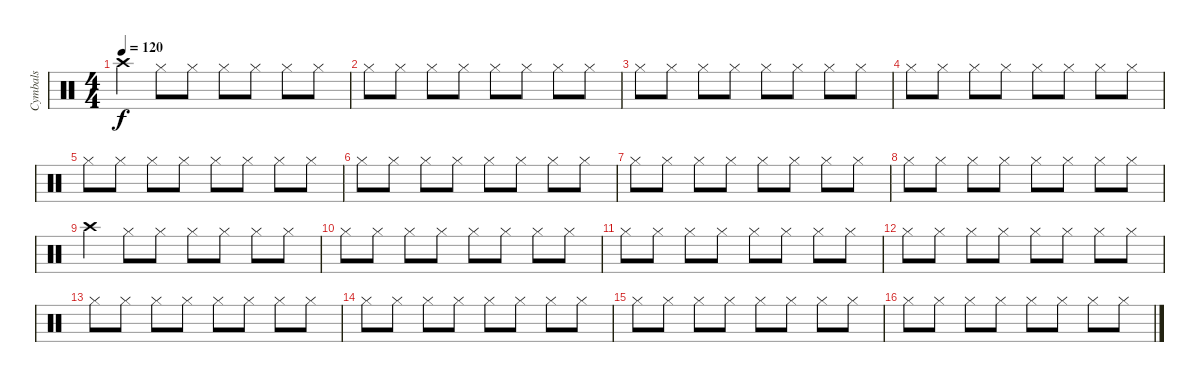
\track ("Cymbals" "Cymbals") {instrument percussion}
\staff {score}
\articulation defaults
\ts (4 4)
\tempo 120
\clef neutral
\ks c "Crash high (hit)".4{dy f} "Hi-Hat (closed)".8 "Hi-Hat (closed)".8 "Hi-Hat (closed)".8 "Hi-Hat (closed)".8 "Hi-Hat (closed)".8 "Hi-Hat (closed)".8
|
"Hi-Hat (closed)".8 "Hi-Hat (closed)".8 "Hi-Hat (closed)".8 "Hi-Hat (closed)".8 "Hi-Hat (closed)".8 "Hi-Hat (closed)".8 "Hi-Hat (closed)".8 "Hi-Hat (closed)".8 |
"Hi-Hat (closed)".8 "Hi-Hat (closed)".8 "Hi-Hat (closed)".8 "Hi-Hat (closed)".8 "Hi-Hat (closed)".8 "Hi-Hat (closed)".8 "Hi-Hat (closed)".8 "Hi-Hat (closed)".8 |
"Hi-Hat (closed)".8 "Hi-Hat (closed)".8 "Hi-Hat (closed)".8 "Hi-Hat (closed)".8 "Hi-Hat (closed)".8 "Hi-Hat (closed)".8 "Hi-Hat (closed)".8 "Hi-Hat (closed)".8 |
"Hi-Hat (closed)".8 "Hi-Hat (closed)".8 "Hi-Hat (closed)".8 "Hi-Hat (closed)".8 "Hi-Hat (closed)".8 "Hi-Hat (closed)".8 "Hi-Hat (closed)".8 "Hi-Hat (closed)".8 |
"Hi-Hat (closed)".8 "Hi-Hat (closed)".8 "Hi-Hat (closed)".8 "Hi-Hat (closed)".8 "Hi-Hat (closed)".8 "Hi-Hat (closed)".8 "Hi-Hat (closed)".8 "Hi-Hat (closed)".8 |
"Hi-Hat (closed)".8 "Hi-Hat (closed)".8 "Hi-Hat (closed)".8 "Hi-Hat (closed)".8 "Hi-Hat (closed)".8 "Hi-Hat (closed)".8 "Hi-Hat (closed)".8 "Hi-Hat (closed)".8 |
"Hi-Hat (closed)".8 "Hi-Hat (closed)".8 "Hi-Hat (closed)".8 "Hi-Hat (closed)".8 "Hi-Hat (closed)".8 "Hi-Hat (closed)".8 "Hi-Hat (closed)".8 "Hi-Hat (closed)".8 |
"Crash high (hit)".4 "Hi-Hat (closed)".8 "Hi-Hat (closed)".8 "Hi-Hat (closed)".8 "Hi-Hat (closed)".8 "Hi-Hat (closed)".8 "Hi-Hat (closed)".8 |
"Hi-Hat (closed)".8 "Hi-Hat (closed)".8 "Hi-Hat (closed)".8 "Hi-Hat (closed)".8 "Hi-Hat (closed)".8 "Hi-Hat (closed)".8 "Hi-Hat (closed)".8 "Hi-Hat (closed)".8 |
"Hi-Hat (closed)".8 "Hi-Hat (closed)".8 "Hi-Hat (closed)".8 "Hi-Hat (closed)".8 "Hi-Hat (closed)".8 "Hi-Hat (closed)".8 "Hi-Hat (closed)".8 "Hi-Hat (closed)".8 |
"Hi-Hat (closed)".8 "Hi-Hat (closed)".8 "Hi-Hat (closed)".8 "Hi-Hat (closed)".8 "Hi-Hat (closed)".8 "Hi-Hat (closed)".8 "Hi-Hat (closed)".8 "Hi-Hat (closed)".8 |
"Hi-Hat (closed)".8 "Hi-Hat (closed)".8 "Hi-Hat (closed)".8 "Hi-Hat (closed)".8 "Hi-Hat (closed)".8 "Hi-Hat (closed)".8 "Hi-Hat (closed)".8 "Hi-Hat (closed)".8 |
"Hi-Hat (closed)".8 "Hi-Hat (closed)".8 "Hi-Hat (closed)".8 "Hi-Hat (closed)".8 "Hi-Hat (closed)".8 "Hi-Hat (closed)".8 "Hi-Hat (closed)".8 "Hi-Hat (closed)".8 |
"Hi-Hat (closed)".8 "Hi-Hat (closed)".8 "Hi-Hat (closed)".8 "Hi-Hat (closed)".8 "Hi-Hat (closed)".8 "Hi-Hat (closed)".8 "Hi-Hat (closed)".8 "Hi-Hat (closed)".8 |
"Hi-Hat (closed)".8 "Hi-Hat (closed)".8 "Hi-Hat (closed)".8 "Hi-Hat (closed)".8 "Hi-Hat (closed)".8 "Hi-Hat (closed)".8 "Hi-Hat (closed)".8 "Hi-Hat (closed)".8
